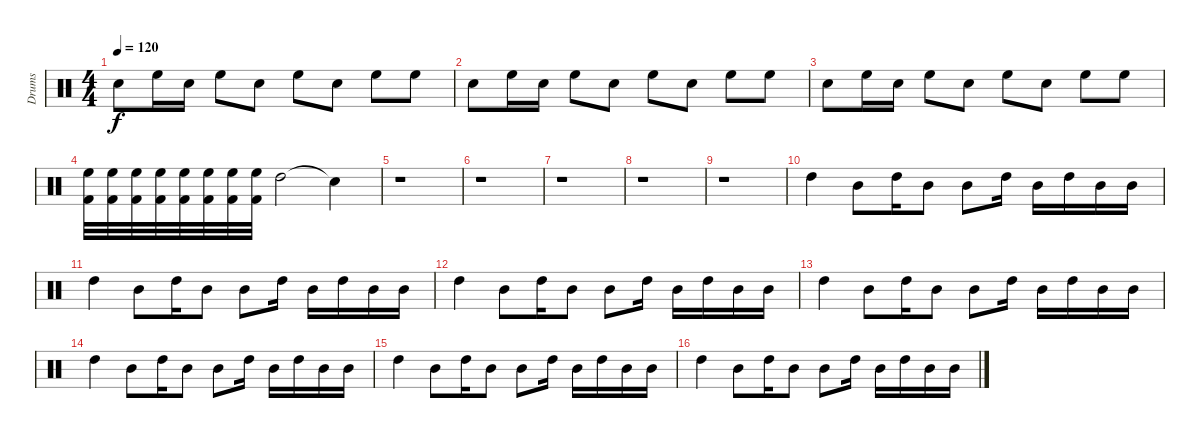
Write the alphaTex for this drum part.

\track ("Drums" "Drums") {instrument percussion}
\staff {score}
\articulation defaults
\ts (4 4)
\tempo 120
\clef neutral
\ks c "Electric Snare (hit)".8{dy f} "High Floor Tom (hit)".16 "Electric Snare (hit)".16 "High Floor Tom (hit)".8 "Electric Snare (hit)".8 "High Floor Tom (hit)".8 "Electric Snare (hit)".8 "High Floor Tom (hit)".8 "High Floor Tom (hit)".8
|
"Electric Snare (hit)".8 "High Floor Tom (hit)".16 "Electric Snare (hit)".16 "High Floor Tom (hit)".8 "Electric Snare (hit)".8 "High Floor Tom (hit)".8 "Electric Snare (hit)".8 "High Floor Tom (hit)".8 "High Floor Tom (hit)".8 |
"Electric Snare (hit)".8 "High Floor Tom (hit)".16 "Electric Snare (hit)".16 "High Floor Tom (hit)".8 "Electric Snare (hit)".8 "High Floor Tom (hit)".8 "Electric Snare (hit)".8 "High Floor Tom (hit)".8 "High Floor Tom (hit)".8 |
("High Floor Tom (hit)" "Kick (hit) 2").32 ("High Floor Tom (hit)" "Kick (hit) 2").32 ("High Floor Tom (hit)" "Kick (hit) 2").32 ("High Floor Tom (hit)" "Kick (hit) 2").32 ("High Floor Tom (hit)" "Kick (hit) 2").32 ("High Floor Tom (hit)" "Kick (hit) 2").32 ("High Floor Tom (hit)" "Kick (hit) 2").32 ("High Floor Tom (hit)" "Kick (hit) 2").32 "High Tom (hit)".2 "Snare (hit)"{t}.4 |
r.1 |
r.1 |
r.1 |
r.1 |
r.1 |
"High Tom (hit)".4 "Mid Tom (hit)".8 "High Tom (hit)".16 "Mid Tom (hit)".8 "Mid Tom (hit)".8 "High Tom (hit)".16 "Mid Tom (hit)".16 "High Tom (hit)".16 "Mid Tom (hit)".16 "Mid Tom (hit)".16 |
"High Tom (hit)".4 "Mid Tom (hit)".8 "High Tom (hit)".16 "Mid Tom (hit)".8 "Mid Tom (hit)".8 "High Tom (hit)".16 "Mid Tom (hit)".16 "High Tom (hit)".16 "Mid Tom (hit)".16 "Mid Tom (hit)".16 |
"High Tom (hit)".4 "Mid Tom (hit)".8 "High Tom (hit)".16 "Mid Tom (hit)".8 "Mid Tom (hit)".8 "High Tom (hit)".16 "Mid Tom (hit)".16 "High Tom (hit)".16 "Mid Tom (hit)".16 "Mid Tom (hit)".16 |
"High Tom (hit)".4 "Mid Tom (hit)".8 "High Tom (hit)".16 "Mid Tom (hit)".8 "Mid Tom (hit)".8 "High Tom (hit)".16 "Mid Tom (hit)".16 "High Tom (hit)".16 "Mid Tom (hit)".16 "Mid Tom (hit)".16 |
"High Tom (hit)".4 "Mid Tom (hit)".8 "High Tom (hit)".16 "Mid Tom (hit)".8 "Mid Tom (hit)".8 "High Tom (hit)".16 "Mid Tom (hit)".16 "High Tom (hit)".16 "Mid Tom (hit)".16 "Mid Tom (hit)".16 |
"High Tom (hit)".4 "Mid Tom (hit)".8 "High Tom (hit)".16 "Mid Tom (hit)".8 "Mid Tom (hit)".8 "High Tom (hit)".16 "Mid Tom (hit)".16 "High Tom (hit)".16 "Mid Tom (hit)".16 "Mid Tom (hit)".16 |
"High Tom (hit)".4 "Mid Tom (hit)".8 "High Tom (hit)".16 "Mid Tom (hit)".8 "Mid Tom (hit)".8 "High Tom (hit)".16 "Mid Tom (hit)".16 "High Tom (hit)".16 "Mid Tom (hit)".16 "Mid Tom (hit)".16
